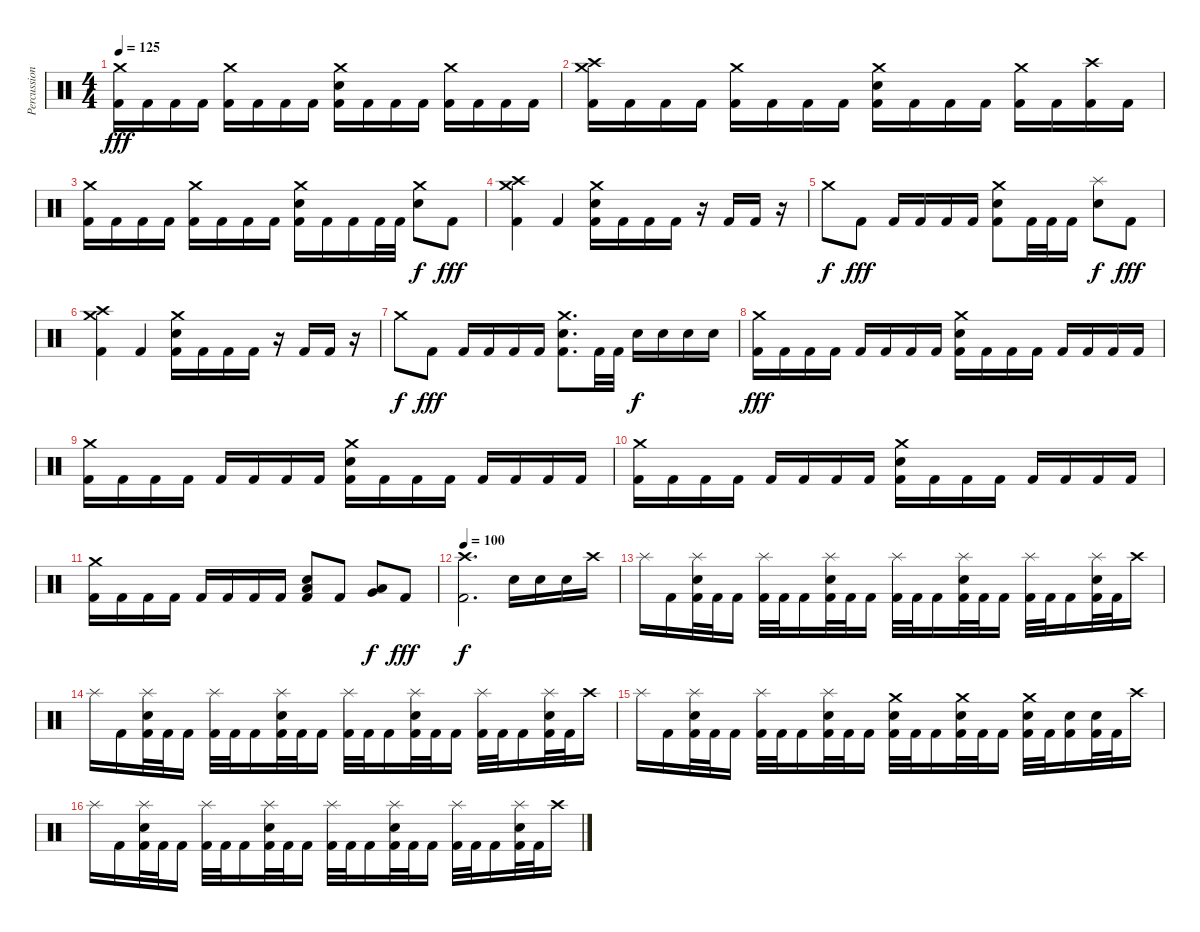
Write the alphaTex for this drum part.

\track ("Percussion" "Percussion") {instrument percussion}
\staff {score}
\articulation defaults
\ts (4 4)
\tempo 125
\clef neutral
\ks c
("Crash medium (hit)" "Kick (hit) 2").16{dy fff} "Kick (hit) 2".16 "Kick (hit) 2".16 "Kick (hit) 2".16 ("Crash medium (hit)" "Kick (hit) 2").16 "Kick (hit) 2".16 "Kick (hit) 2".16 "Kick (hit) 2".16 ("Crash medium (hit)" "Electric Snare (hit)" "Kick (hit) 2").16 "Kick (hit) 2".16 "Kick (hit) 2".16 "Kick (hit) 2".16 ("Crash medium (hit)" "Kick (hit) 2").16 "Kick (hit) 2".16 "Kick (hit) 2".16 "Kick (hit) 2".16 |
("Crash high (hit)" "Crash medium (hit)" "Kick (hit) 2").16 "Kick (hit) 2".16 "Kick (hit) 2".16 "Kick (hit) 2".16 ("Crash medium (hit)" "Kick (hit) 2").16 "Kick (hit) 2".16 "Kick (hit) 2".16 "Kick (hit) 2".16 ("Crash medium (hit)" "Electric Snare (hit)" "Kick (hit) 2").16 "Kick (hit) 2".16 "Kick (hit) 2".16 "Kick (hit) 2".16 ("Crash medium (hit)" "Kick (hit) 2").16 "Kick (hit) 2".16 ("Crash high (hit)" "Kick (hit) 2").16 "Kick (hit) 2".16 |
("Crash medium (hit)" "Kick (hit) 2").16 "Kick (hit) 2".16 "Kick (hit) 2".16 "Kick (hit) 2".16 ("Crash medium (hit)" "Kick (hit) 2").16 "Kick (hit) 2".16 "Kick (hit) 2".16 "Kick (hit) 2".16 ("Crash medium (hit)" "Electric Snare (hit)" "Kick (hit) 2").16 "Kick (hit) 2".16 "Kick (hit) 2".16 "Kick (hit) 2".32 "Kick (hit) 2".32 ("Crash medium (hit)" "Electric Snare (hit)").8{dy f} "Kick (hit) 2".8{dy fff} |
("Crash high (hit)" "Crash medium (hit)" "Kick (hit) 2").4 "Kick (hit) 2".4 ("Crash medium (hit)" "Electric Snare (hit)" "Kick (hit) 2").16 "Kick (hit) 2".16 "Kick (hit) 2".16 "Kick (hit) 2".16 r.16 "Kick (hit) 2".16 "Kick (hit) 2".16 r.16 |
"Crash medium (hit)".8{dy f} "Kick (hit) 2".8{dy fff} "Kick (hit) 2".16 "Kick (hit) 2".16 "Kick (hit) 2".16 "Kick (hit) 2".16 ("Crash medium (hit)" "Electric Snare (hit)" "Kick (hit) 2").8 "Kick (hit) 2".32 "Kick (hit) 2".32 "Kick (hit) 2".16 ("Splash (hit)" "Electric Snare (hit)").8{dy f} "Kick (hit) 2".8{dy fff} |
("Crash high (hit)" "Crash medium (hit)" "Kick (hit) 2").4 "Kick (hit) 2".4 ("Crash medium (hit)" "Electric Snare (hit)" "Kick (hit) 2").16 "Kick (hit) 2".16 "Kick (hit) 2".16 "Kick (hit) 2".16 r.16 "Kick (hit) 2".16 "Kick (hit) 2".16 r.16 |
"Crash medium (hit)".8{dy f} "Kick (hit) 2".8{dy fff} "Kick (hit) 2".16 "Kick (hit) 2".16 "Kick (hit) 2".16 "Kick (hit) 2".16 ("Crash medium (hit)" "Electric Snare (hit)" "Kick (hit) 2").8{d} "Kick (hit) 2".32 "Kick (hit) 2".32 "Electric Snare (hit)".16{dy f} "Electric Snare (hit)".16 "Electric Snare (hit)".16 "Electric Snare (hit)".16 |
("Crash medium (hit)" "Kick (hit) 2").16{dy fff} "Kick (hit) 2".16 "Kick (hit) 2".16 "Kick (hit) 2".16 "Kick (hit) 2".16 "Kick (hit) 2".16 "Kick (hit) 2".16 "Kick (hit) 2".16 ("Crash medium (hit)" "Electric Snare (hit)" "Kick (hit) 2").16 "Kick (hit) 2".16 "Kick (hit) 2".16 "Kick (hit) 2".16 "Kick (hit) 2".16 "Kick (hit) 2".16 "Kick (hit) 2".16 "Kick (hit) 2".16 |
("Crash medium (hit)" "Kick (hit) 2").16 "Kick (hit) 2".16 "Kick (hit) 2".16 "Kick (hit) 2".16 "Kick (hit) 2".16 "Kick (hit) 2".16 "Kick (hit) 2".16 "Kick (hit) 2".16 ("Crash medium (hit)" "Electric Snare (hit)" "Kick (hit) 2").16 "Kick (hit) 2".16 "Kick (hit) 2".16 "Kick (hit) 2".16 "Kick (hit) 2".16 "Kick (hit) 2".16 "Kick (hit) 2".16 "Kick (hit) 2".16 |
("Crash medium (hit)" "Kick (hit) 2").16 "Kick (hit) 2".16 "Kick (hit) 2".16 "Kick (hit) 2".16 "Kick (hit) 2".16 "Kick (hit) 2".16 "Kick (hit) 2".16 "Kick (hit) 2".16 ("Crash medium (hit)" "Electric Snare (hit)" "Kick (hit) 2").16 "Kick (hit) 2".16 "Kick (hit) 2".16 "Kick (hit) 2".16 "Kick (hit) 2".16 "Kick (hit) 2".16 "Kick (hit) 2".16 "Kick (hit) 2".16 |
("Crash medium (hit)" "Kick (hit) 2").16 "Kick (hit) 2".16 "Kick (hit) 2".16 "Kick (hit) 2".16 "Kick (hit) 2".16 "Kick (hit) 2".16 "Kick (hit) 2".16 "Kick (hit) 2".16 ("Electric Snare (hit)" "Low Tom (hit)" "Kick (hit) 2").8 "Kick (hit) 2".8 ("Very Low Tom (hit)" "Low Floor Tom (hit)").8{dy f} "Kick (hit) 2".8{dy fff} |
\tempo 100
("Crash high (hit)" "Kick (hit) 2").2{d dy f} "Electric Snare (hit)".16 "Electric Snare (hit)".16 "Electric Snare (hit)".16 "Crash high (hit)".16 |
"Splash (hit)".16 "Kick (hit) 2".16 ("Splash (hit)" "Electric Snare (hit)" "Kick (hit) 2").32 "Kick (hit) 2".32 "Kick (hit) 2".16 ("Splash (hit)" "Kick (hit) 2").32 "Kick (hit) 2".32 "Kick (hit) 2".16 ("Splash (hit)" "Electric Snare (hit)" "Kick (hit) 2").32 "Kick (hit) 2".32 "Kick (hit) 2".16 ("Splash (hit)" "Kick (hit) 2").32 "Kick (hit) 2".32 "Kick (hit) 2".16 ("Splash (hit)" "Electric Snare (hit)" "Kick (hit) 2").32 "Kick (hit) 2".32 "Kick (hit) 2".16 ("Splash (hit)" "Kick (hit) 2").32 "Kick (hit) 2".32 "Kick (hit) 2".16 ("Splash (hit)" "Electric Snare (hit)" "Kick (hit) 2").32 "Kick (hit) 2".32 "Crash high (hit)".16 |
"Splash (hit)".16 "Kick (hit) 2".16 ("Splash (hit)" "Electric Snare (hit)" "Kick (hit) 2").32 "Kick (hit) 2".32 "Kick (hit) 2".16 ("Splash (hit)" "Kick (hit) 2").32 "Kick (hit) 2".32 "Kick (hit) 2".16 ("Splash (hit)" "Electric Snare (hit)" "Kick (hit) 2").32 "Kick (hit) 2".32 "Kick (hit) 2".16 ("Splash (hit)" "Kick (hit) 2").32 "Kick (hit) 2".32 "Kick (hit) 2".16 ("Splash (hit)" "Electric Snare (hit)" "Kick (hit) 2").32 "Kick (hit) 2".32 "Kick (hit) 2".16 ("Splash (hit)" "Kick (hit) 2").32 "Kick (hit) 2".32 "Kick (hit) 2".16 ("Splash (hit)" "Electric Snare (hit)" "Kick (hit) 2").32 "Kick (hit) 2".32 "Crash high (hit)".16 |
"Splash (hit)".16 "Kick (hit) 2".16 ("Splash (hit)" "Electric Snare (hit)" "Kick (hit) 2").32 "Kick (hit) 2".32 "Kick (hit) 2".16 ("Splash (hit)" "Kick (hit) 2").32 "Kick (hit) 2".32 "Kick (hit) 2".16 ("Splash (hit)" "Electric Snare (hit)" "Kick (hit) 2").32 "Kick (hit) 2".32 "Kick (hit) 2".16 ("Crash medium (hit)" "Electric Snare (hit)" "Kick (hit) 2").32 "Kick (hit) 2".32 "Kick (hit) 2".16 ("Crash medium (hit)" "Electric Snare (hit)" "Kick (hit) 2").32 "Kick (hit) 2".32 "Kick (hit) 2".16 ("Crash medium (hit)" "Electric Snare (hit)" "Kick (hit) 2").32 "Kick (hit) 2".32 ("Electric Snare (hit)" "Kick (hit) 2").16 ("Electric Snare (hit)" "Kick (hit) 2").32 "Kick (hit) 2".32 "Crash high (hit)".16 |
"Splash (hit)".16 "Kick (hit) 2".16 ("Splash (hit)" "Electric Snare (hit)" "Kick (hit) 2").32 "Kick (hit) 2".32 "Kick (hit) 2".16 ("Splash (hit)" "Kick (hit) 2").32 "Kick (hit) 2".32 "Kick (hit) 2".16 ("Splash (hit)" "Electric Snare (hit)" "Kick (hit) 2").32 "Kick (hit) 2".32 "Kick (hit) 2".16 ("Splash (hit)" "Kick (hit) 2").32 "Kick (hit) 2".32 "Kick (hit) 2".16 ("Splash (hit)" "Electric Snare (hit)" "Kick (hit) 2").32 "Kick (hit) 2".32 "Kick (hit) 2".16 ("Splash (hit)" "Kick (hit) 2").32 "Kick (hit) 2".32 "Kick (hit) 2".16 ("Splash (hit)" "Electric Snare (hit)" "Kick (hit) 2").32 "Kick (hit) 2".32 "Crash high (hit)".16
